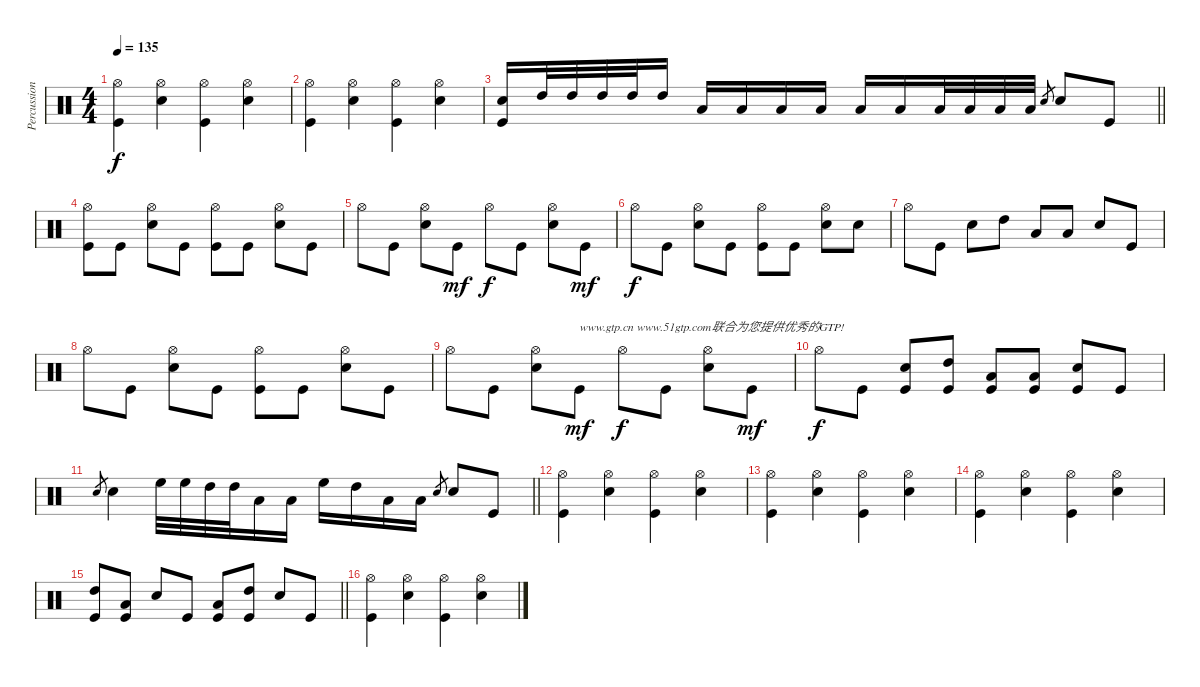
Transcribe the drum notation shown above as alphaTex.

\track ("Percussion" "Percussion") {instrument percussion}
\staff {score}
\articulation defaults
\ts (4 4)
\tempo 135
\clef neutral
\ks c
("Hi-Hat (open)" "Kick (hit)").4{dy f} ("Hi-Hat (open)" "Electric Snare (hit)").4 ("Hi-Hat (open)" "Kick (hit)").4 ("Hi-Hat (open)" "Electric Snare (hit)").4 |
("Hi-Hat (open)" "Kick (hit)").4 ("Hi-Hat (open)" "Electric Snare (hit)").4 ("Hi-Hat (open)" "Kick (hit)").4 ("Hi-Hat (open)" "Electric Snare (hit)").4 |
\barLineRight lightlight
("Electric Snare (hit)" "Kick (hit)").16 "High Tom (hit)".32 "High Tom (hit)".32 "High Tom (hit)".32 "High Tom (hit)".32 "High Tom (hit)".16 "Low Tom (hit)".16 "Low Tom (hit)".16 "Low Tom (hit)".16 "Low Tom (hit)".16 "Low Floor Tom (hit)".16 "Low Floor Tom (hit)".16 "Low Floor Tom (hit)".32 "Low Floor Tom (hit)".32 "Low Floor Tom (hit)".32 "Low Floor Tom (hit)".32 "Electric Snare (hit)".8{gr} "Electric Snare (hit)".8 "Kick (hit)".8 |
("Hi-Hat (open)" "Kick (hit)").8 "Kick (hit)".8 ("Hi-Hat (open)" "Electric Snare (hit)").8 "Kick (hit)".8 ("Hi-Hat (open)" "Kick (hit)").8 "Kick (hit)".8 ("Hi-Hat (open)" "Electric Snare (hit)").8 "Kick (hit)".8 |
"Hi-Hat (open)".8 "Kick (hit)".8 ("Hi-Hat (open)" "Electric Snare (hit)").8 "Kick (hit)".8{dy mf} "Hi-Hat (open)".8{dy f} "Kick (hit)".8 ("Hi-Hat (open)" "Electric Snare (hit)").8 "Kick (hit)".8{dy mf} |
"Hi-Hat (open)".8{dy f} "Kick (hit)".8 ("Hi-Hat (open)" "Electric Snare (hit)").8 "Kick (hit)".8 ("Hi-Hat (open)" "Kick (hit)").8 "Kick (hit)".8 ("Hi-Hat (open)" "Electric Snare (hit)").8 "Electric Snare (hit)".8 |
"Hi-Hat (open)".8 "Kick (hit)".8 "Electric Snare (hit)".8 "High Tom (hit)".8 "Low Tom (hit)".8 "Low Floor Tom (hit)".8 "Electric Snare (hit)".8 "Kick (hit)".8 |
"Hi-Hat (open)".8 "Kick (hit)".8 ("Hi-Hat (open)" "Electric Snare (hit)").8 "Kick (hit)".8 ("Hi-Hat (open)" "Kick (hit)").8 "Kick (hit)".8 ("Hi-Hat (open)" "Electric Snare (hit)").8 "Kick (hit)".8 |
"Hi-Hat (open)".8 "Kick (hit)".8 ("Hi-Hat (open)" "Electric Snare (hit)").8 "Kick (hit)".8{txt "www.gtp.cn www.51gtp.com联合为您提供优秀的GTP!" dy mf} "Hi-Hat (open)".8{dy f} "Kick (hit)".8 ("Hi-Hat (open)" "Electric Snare (hit)").8 "Kick (hit)".8{dy mf} |
"Hi-Hat (open)".8{dy f} "Kick (hit)".8 ("Electric Snare (hit)" "Kick (hit)").8 ("High Tom (hit)" "Kick (hit)").8 ("Low Tom (hit)" "Kick (hit)").8 ("Low Floor Tom (hit)" "Kick (hit)").8 ("Electric Snare (hit)" "Kick (hit)").8 "Kick (hit)".8 |
\barLineRight lightlight "Electric Snare (hit)".8{gr} "Electric Snare (hit)".4 "High Floor Tom (hit)".32 "High Floor Tom (hit)".32 "High Tom (hit)".32 "High Tom (hit)".32 "Low Tom (hit)".16 "Low Floor Tom (hit)".16 "High Floor Tom (hit)".16 "High Tom (hit)".16 "Low Tom (hit)".16 "Low Floor Tom (hit)".16 "Electric Snare (hit)".8{gr} "Electric Snare (hit)".8 "Kick (hit)".8
|
("Hi-Hat (open)" "Kick (hit)").4 ("Hi-Hat (open)" "Electric Snare (hit)").4 ("Hi-Hat (open)" "Kick (hit)").4 ("Hi-Hat (open)" "Electric Snare (hit)").4 |
("Hi-Hat (open)" "Kick (hit)").4 ("Hi-Hat (open)" "Electric Snare (hit)").4 ("Hi-Hat (open)" "Kick (hit)").4 ("Hi-Hat (open)" "Electric Snare (hit)").4 |
("Hi-Hat (open)" "Kick (hit)").4 ("Hi-Hat (open)" "Electric Snare (hit)").4 ("Hi-Hat (open)" "Kick (hit)").4 ("Hi-Hat (open)" "Electric Snare (hit)").4 |
\barLineRight lightlight
("High Tom (hit)" "Kick (hit)").8 ("Low Tom (hit)" "Kick (hit)").8 "Electric Snare (hit)".8 "Kick (hit)".8 ("Low Tom (hit)" "Kick (hit)").8 ("High Tom (hit)" "Kick (hit)").8 "Electric Snare (hit)".8 "Kick (hit)".8 |
("Hi-Hat (open)" "Kick (hit)").4 ("Hi-Hat (open)" "Electric Snare (hit)").4 ("Hi-Hat (open)" "Kick (hit)").4 ("Hi-Hat (open)" "Electric Snare (hit)").4
